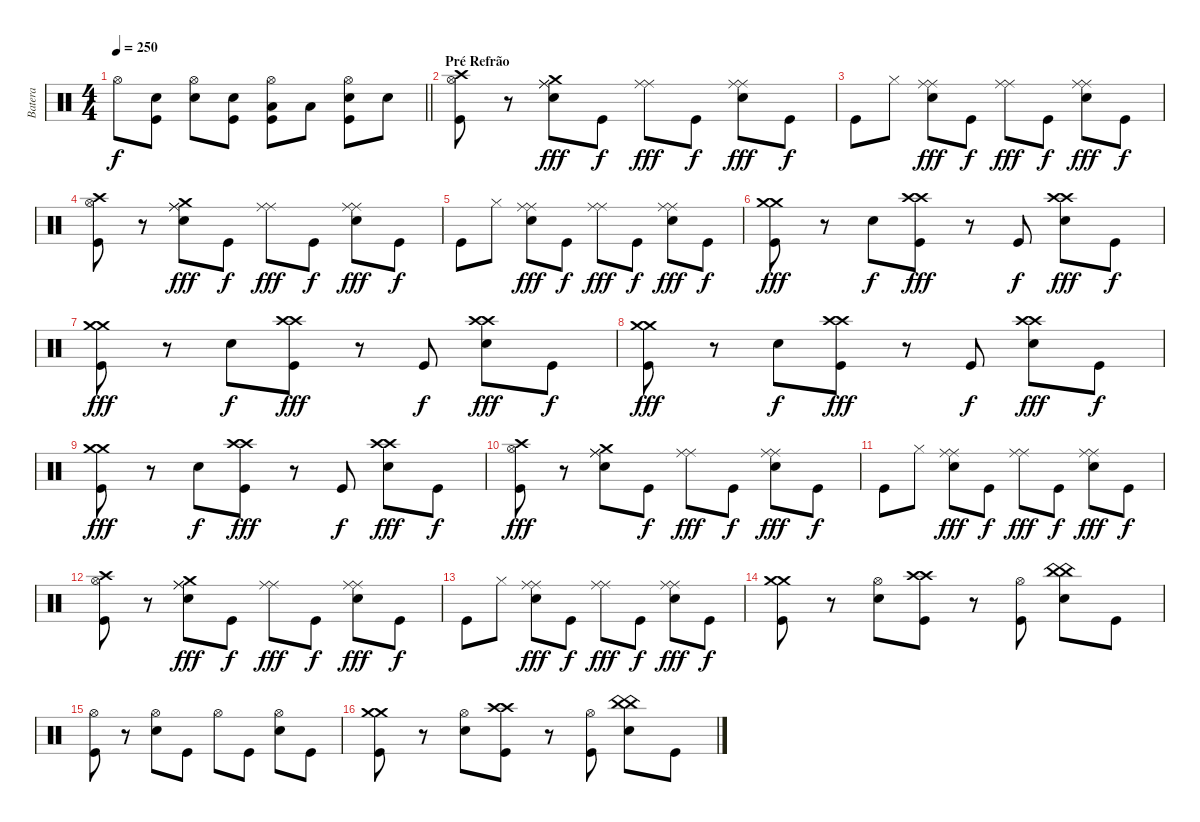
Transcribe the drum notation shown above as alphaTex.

\track ("Batera" "Batera") {instrument percussion}
\staff {score}
\articulation defaults
\ts (4 4)
\tempo 250
\clef neutral
\barLineRight lightlight
\ks c "Hi-Hat (open)".8{dy f}
("Snare (hit) 2" "Kick (hit)").8 ("Hi-Hat (open)" "Electric Snare (hit)").8 ("Electric Snare (hit)" "Kick (hit)").8 ("Hi-Hat (open)" "Low Floor Tom (hit)" "Kick (hit)").8 "Low Floor Tom (hit)".8 ("Hi-Hat (open)" "Snare (hit) 2" "Kick (hit)").8 "Snare (hit) 2".8 |
\section ("" "Pré Refrão")
("Crash high (hit)" "Hi-Hat (open)" "Kick (hit)").8 r.8 ("Crash medium (hit)" "Ride (middle)" "Ride (middle)" "Electric Snare (hit)").8{dy fff} "Kick (hit)".8{dy f} ("Ride (middle)" "Ride (middle)").8{dy fff} "Kick (hit)".8{dy f} ("Ride (middle)" "Ride (middle)" "Electric Snare (hit)").8{dy fff} "Kick (hit)".8{dy f} |
"Kick (hit)".8 "Hi-Hat (closed)".8 ("Ride (middle)" "Ride (middle)" "Electric Snare (hit)").8{dy fff} "Kick (hit)".8{dy f} ("Ride (middle)" "Ride (middle)").8{dy fff} "Kick (hit)".8{dy f} ("Ride (middle)" "Ride (middle)" "Electric Snare (hit)").8{dy fff} "Kick (hit)".8{dy f} |
("Crash high (hit)" "Hi-Hat (open)" "Kick (hit)").8 r.8 ("Crash medium (hit)" "Ride (middle)" "Ride (middle)" "Electric Snare (hit)").8{dy fff} "Kick (hit)".8{dy f} ("Ride (middle)" "Ride (middle)").8{dy fff} "Kick (hit)".8{dy f} ("Ride (middle)" "Ride (middle)" "Electric Snare (hit)").8{dy fff} "Kick (hit)".8{dy f} |
"Kick (hit)".8 "Hi-Hat (closed)".8 ("Ride (middle)" "Ride (middle)" "Electric Snare (hit)").8{dy fff} "Kick (hit)".8{dy f} ("Ride (middle)" "Ride (middle)").8{dy fff} "Kick (hit)".8{dy f} ("Ride (middle)" "Ride (middle)" "Electric Snare (hit)").8{dy fff} "Kick (hit)".8{dy f} |
("Crash medium (hit)" "Crash medium (hit)" "Kick (hit)").8{dy fff} r.8 "Electric Snare (hit)".8{dy f} ("Crash high (hit)" "Crash high (hit)" "Kick (hit)").8{dy fff} r.8 "Kick (hit)".8{dy f} ("Crash high (hit)" "Crash high (hit)" "Electric Snare (hit)").8{dy fff} "Kick (hit)".8{dy f} |
("Crash medium (hit)" "Crash medium (hit)" "Kick (hit)").8{dy fff} r.8 "Electric Snare (hit)".8{dy f} ("Crash high (hit)" "Crash high (hit)" "Kick (hit)").8{dy fff} r.8 "Kick (hit)".8{dy f} ("Crash high (hit)" "Crash high (hit)" "Electric Snare (hit)").8{dy fff} "Kick (hit)".8{dy f} |
("Crash medium (hit)" "Crash medium (hit)" "Kick (hit)").8{dy fff} r.8 "Electric Snare (hit)".8{dy f} ("Crash high (hit)" "Crash high (hit)" "Kick (hit)").8{dy fff} r.8 "Kick (hit)".8{dy f} ("Crash high (hit)" "Crash high (hit)" "Electric Snare (hit)").8{dy fff} "Kick (hit)".8{dy f} |
("Crash medium (hit)" "Crash medium (hit)" "Kick (hit)").8{dy fff} r.8 "Electric Snare (hit)".8{dy f} ("Crash high (hit)" "Crash high (hit)" "Kick (hit)").8{dy fff} r.8 "Kick (hit)".8{dy f} ("Crash high (hit)" "Crash high (hit)" "Electric Snare (hit)").8{dy fff} "Kick (hit)".8{dy f} |
("Crash high (hit)" "Hi-Hat (open)" "Kick (hit)").8{dy fff} r.8 ("Crash medium (hit)" "Ride (middle)" "Ride (middle)" "Electric Snare (hit)").8 "Kick (hit)".8{dy f} ("Ride (middle)" "Ride (middle)").8{dy fff} "Kick (hit)".8{dy f} ("Ride (middle)" "Ride (middle)" "Electric Snare (hit)").8{dy fff} "Kick (hit)".8{dy f} |
"Kick (hit)".8 "Hi-Hat (closed)".8 ("Ride (middle)" "Ride (middle)" "Electric Snare (hit)").8{dy fff} "Kick (hit)".8{dy f} ("Ride (middle)" "Ride (middle)").8{dy fff} "Kick (hit)".8{dy f} ("Ride (middle)" "Ride (middle)" "Electric Snare (hit)").8{dy fff} "Kick (hit)".8{dy f} |
("Crash high (hit)" "Hi-Hat (open)" "Kick (hit)").8 r.8 ("Crash medium (hit)" "Ride (middle)" "Ride (middle)" "Electric Snare (hit)").8{dy fff} "Kick (hit)".8{dy f} ("Ride (middle)" "Ride (middle)").8{dy fff} "Kick (hit)".8{dy f} ("Ride (middle)" "Ride (middle)" "Electric Snare (hit)").8{dy fff} "Kick (hit)".8{dy f} |
"Kick (hit)".8 "Hi-Hat (closed)".8 ("Ride (middle)" "Ride (middle)" "Electric Snare (hit)").8{dy fff} "Kick (hit)".8{dy f} ("Ride (middle)" "Ride (middle)").8{dy fff} "Kick (hit)".8{dy f} ("Ride (middle)" "Ride (middle)" "Electric Snare (hit)").8{dy fff} "Kick (hit)".8{dy f} |
("Crash medium (hit)" "Crash medium (hit)" "Kick (hit)").8 r.8 ("Hi-Hat (open)" "Electric Snare (hit)").8 ("Crash high (hit)" "Crash high (hit)" "Kick (hit)").8 r.8 ("Hi-Hat (open)" "Kick (hit)").8 ("China (hit)" "China (hit)" "Electric Snare (hit)").8 "Kick (hit)".8 |
("Hi-Hat (open)" "Kick (hit)").8 r.8 ("Hi-Hat (open)" "Electric Snare (hit)").8 "Kick (hit)".8 "Hi-Hat (open)".8 "Kick (hit)".8 ("Hi-Hat (open)" "Electric Snare (hit)").8 "Kick (hit)".8 |
("Crash medium (hit)" "Crash medium (hit)" "Kick (hit)").8 r.8 ("Hi-Hat (open)" "Electric Snare (hit)").8 ("Crash high (hit)" "Crash high (hit)" "Kick (hit)").8 r.8 ("Hi-Hat (open)" "Kick (hit)").8 ("China (hit)" "China (hit)" "Electric Snare (hit)").8 "Kick (hit)".8
